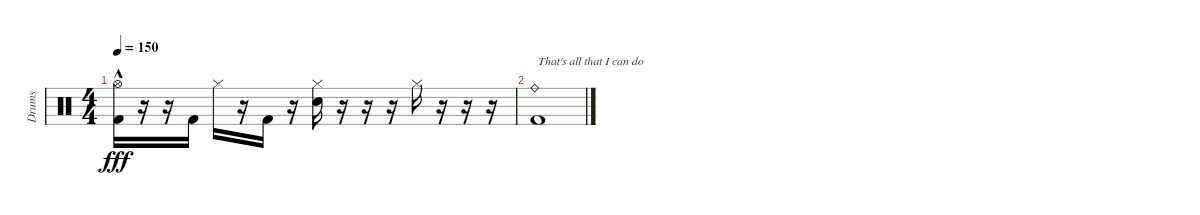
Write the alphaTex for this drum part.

\track ("Drums" "Drums") {instrument percussion}
\staff {score}
\articulation defaults
\ts (4 4)
\tempo 150
\clef neutral
\ks c
("Hi-Hat (open)"{hac} "Kick (hit) 2").16{dy fff} r.16 r.16 "Kick (hit) 2".16 "Hi-Hat (closed)".16 r.16 "Kick (hit) 2".16 r.16 ("Hi-Hat (closed)" "Electric Snare (hit)").16 r.16 r.16 r.16 "Hi-Hat (closed)".16 r.16 r.16 r.16 |
("Ride (bell)" "Kick (hit) 2").1{txt "That's all that I can do"}
